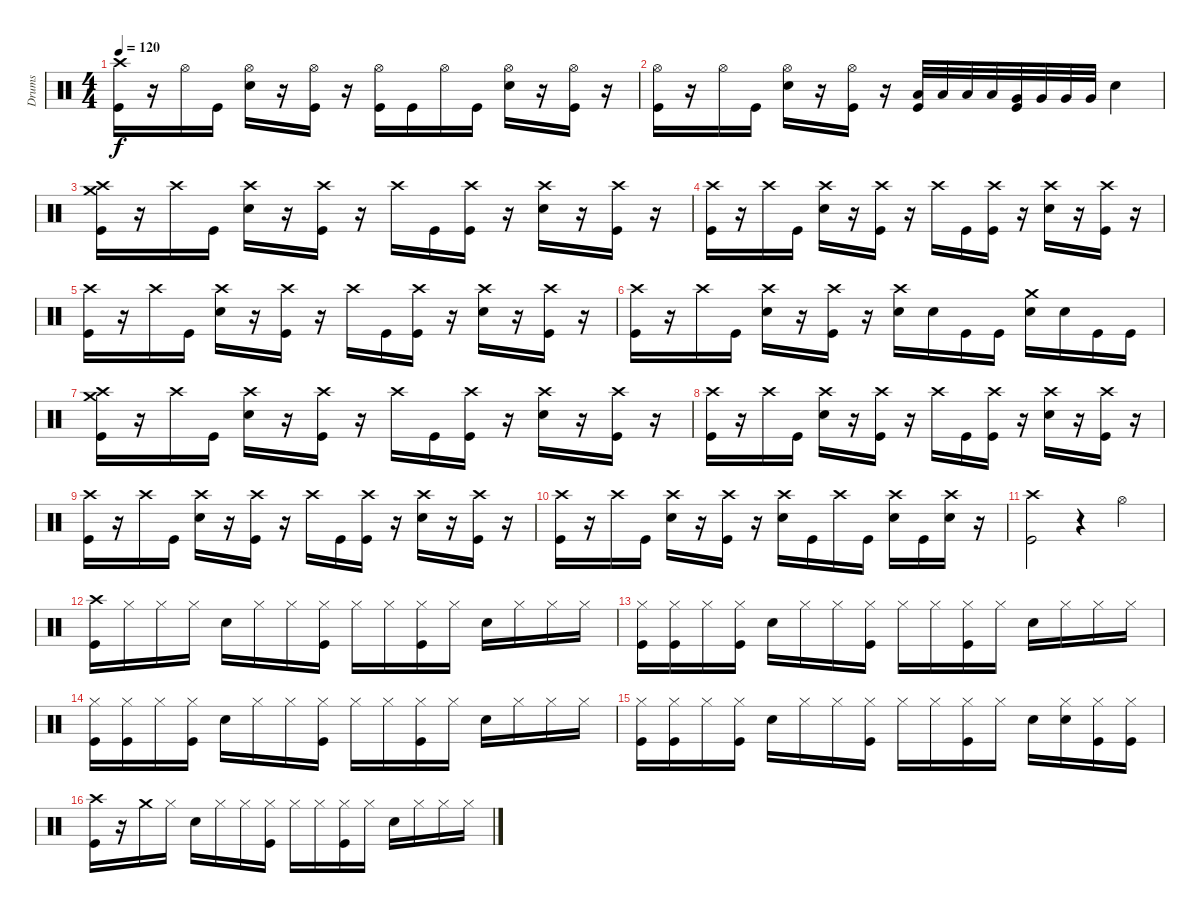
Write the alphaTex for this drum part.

\track ("Drums" "Drums") {instrument percussion}
\staff {score}
\articulation defaults
\ts (4 4)
\tempo 120
\clef neutral
\ks c
("Crash high (hit)" "Kick (hit)").16{dy f} r.16 "Hi-Hat (open)".16 "Kick (hit)".16 ("Hi-Hat (open)" "Snare (hit) 2").16 r.16 ("Hi-Hat (open)" "Kick (hit)").16 r.16 ("Hi-Hat (open)" "Kick (hit)").16 "Kick (hit)".16 "Hi-Hat (open)".16 "Kick (hit)".16 ("Hi-Hat (open)" "Snare (hit) 2").16 r.16 ("Hi-Hat (open)" "Kick (hit)").16 r.16 |
("Hi-Hat (open)" "Kick (hit)").16 r.16 "Hi-Hat (open)".16 "Kick (hit)".16 ("Hi-Hat (open)" "Snare (hit) 2").16 r.16 ("Hi-Hat (open)" "Kick (hit)").16 r.16 ("Low Tom (hit)" "Kick (hit)").32 "Low Tom (hit)".32 "Low Tom (hit)".32 "Low Tom (hit)".32 ("Very Low Tom (hit)" "Kick (hit)").32 "Very Low Tom (hit)".32 "Very Low Tom (hit)".32 "Very Low Tom (hit)".32 "Snare (hit) 2".4 |
("Crash medium (hit)" "Crash high (hit)" "Kick (hit)").16 r.16 "Crash high (hit)".16 "Kick (hit)".16 ("Crash high (hit)" "Snare (hit) 2").16 r.16 ("Crash high (hit)" "Kick (hit)").16 r.16 "Crash high (hit)".16 "Kick (hit)".16 ("Crash high (hit)" "Kick (hit)").16 r.16 ("Crash high (hit)" "Snare (hit) 2").16 r.16 ("Crash high (hit)" "Kick (hit)").16 r.16 |
("Crash high (hit)" "Kick (hit)").16 r.16 "Crash high (hit)".16 "Kick (hit)".16 ("Crash high (hit)" "Snare (hit) 2").16 r.16 ("Crash high (hit)" "Kick (hit)").16 r.16 "Crash high (hit)".16 "Kick (hit)".16 ("Crash high (hit)" "Kick (hit)").16 r.16 ("Crash high (hit)" "Snare (hit) 2").16 r.16 ("Crash high (hit)" "Kick (hit)").16 r.16 |
("Crash high (hit)" "Kick (hit)").16 r.16 "Crash high (hit)".16 "Kick (hit)".16 ("Crash high (hit)" "Snare (hit) 2").16 r.16 ("Crash high (hit)" "Kick (hit)").16 r.16 "Crash high (hit)".16 "Kick (hit)".16 ("Crash high (hit)" "Kick (hit)").16 r.16 ("Crash high (hit)" "Snare (hit) 2").16 r.16 ("Crash high (hit)" "Kick (hit)").16 r.16 |
("Crash high (hit)" "Kick (hit)").16 r.16 "Crash high (hit)".16 "Kick (hit)".16 ("Crash high (hit)" "Snare (hit) 2").16 r.16 ("Crash high (hit)" "Kick (hit)").16 r.16 ("Crash high (hit)" "Snare (hit) 2").16 "Snare (hit) 2".16 "Kick (hit)".16 "Kick (hit)".16 ("Crash medium (hit)" "Snare (hit) 2").16 "Snare (hit) 2".16 "Kick (hit)".16 "Kick (hit)".16 |
("Crash medium (hit)" "Crash high (hit)" "Kick (hit)").16 r.16 "Crash high (hit)".16 "Kick (hit)".16 ("Crash high (hit)" "Snare (hit) 2").16 r.16 ("Crash high (hit)" "Kick (hit)").16 r.16 "Crash high (hit)".16 "Kick (hit)".16 ("Crash high (hit)" "Kick (hit)").16 r.16 ("Crash high (hit)" "Snare (hit) 2").16 r.16 ("Crash high (hit)" "Kick (hit)").16 r.16 |
("Crash high (hit)" "Kick (hit)").16 r.16 "Crash high (hit)".16 "Kick (hit)".16 ("Crash high (hit)" "Snare (hit) 2").16 r.16 ("Crash high (hit)" "Kick (hit)").16 r.16 "Crash high (hit)".16 "Kick (hit)".16 ("Crash high (hit)" "Kick (hit)").16 r.16 ("Crash high (hit)" "Snare (hit) 2").16 r.16 ("Crash high (hit)" "Kick (hit)").16 r.16 |
("Crash high (hit)" "Kick (hit)").16 r.16 "Crash high (hit)".16 "Kick (hit)".16 ("Crash high (hit)" "Snare (hit) 2").16 r.16 ("Crash high (hit)" "Kick (hit)").16 r.16 "Crash high (hit)".16 "Kick (hit)".16 ("Crash high (hit)" "Kick (hit)").16 r.16 ("Crash high (hit)" "Snare (hit) 2").16 r.16 ("Crash high (hit)" "Kick (hit)").16 r.16 |
("Crash high (hit)" "Kick (hit)").16 r.16 "Crash high (hit)".16 "Kick (hit)".16 ("Crash high (hit)" "Snare (hit) 2").16 r.16 ("Crash high (hit)" "Kick (hit)").16 r.16 ("Crash high (hit)" "Snare (hit) 2").16 "Kick (hit)".16 "Crash high (hit)".16 "Kick (hit)".16 ("Crash high (hit)" "Snare (hit) 2").16 "Kick (hit)".16 ("Crash high (hit)" "Snare (hit) 2").16 r.16 |
("Crash high (hit)" "Kick (hit)").2 r.4 "Hi-Hat (open)".4 |
("Crash high (hit)" "Kick (hit)").16 "Hi-Hat (closed)".16 "Hi-Hat (closed)".16 "Hi-Hat (closed)".16 "Snare (hit) 2".16 "Hi-Hat (closed)".16 "Hi-Hat (closed)".16 ("Hi-Hat (closed)" "Kick (hit)").16 "Hi-Hat (closed)".16 "Hi-Hat (closed)".16 ("Hi-Hat (closed)" "Kick (hit)").16 "Hi-Hat (closed)".16 "Snare (hit) 2".16 "Hi-Hat (closed)".16 "Hi-Hat (closed)".16 "Hi-Hat (closed)".16 |
("Hi-Hat (closed)" "Kick (hit)").16 ("Hi-Hat (closed)" "Kick (hit)").16 "Hi-Hat (closed)".16 ("Hi-Hat (closed)" "Kick (hit)").16 "Snare (hit) 2".16 "Hi-Hat (closed)".16 "Hi-Hat (closed)".16 ("Hi-Hat (closed)" "Kick (hit)").16 "Hi-Hat (closed)".16 "Hi-Hat (closed)".16 ("Hi-Hat (closed)" "Kick (hit)").16 "Hi-Hat (closed)".16 "Snare (hit) 2".16 "Hi-Hat (closed)".16 "Hi-Hat (closed)".16 "Hi-Hat (closed)".16 |
("Hi-Hat (closed)" "Kick (hit)").16 ("Hi-Hat (closed)" "Kick (hit)").16 "Hi-Hat (closed)".16 ("Hi-Hat (closed)" "Kick (hit)").16 "Snare (hit) 2".16 "Hi-Hat (closed)".16 "Hi-Hat (closed)".16 ("Hi-Hat (closed)" "Kick (hit)").16 "Hi-Hat (closed)".16 "Hi-Hat (closed)".16 ("Hi-Hat (closed)" "Kick (hit)").16 "Hi-Hat (closed)".16 "Snare (hit) 2".16 "Hi-Hat (closed)".16 "Hi-Hat (closed)".16 "Hi-Hat (closed)".16 |
("Hi-Hat (closed)" "Kick (hit)").16 ("Hi-Hat (closed)" "Kick (hit)").16 "Hi-Hat (closed)".16 ("Hi-Hat (closed)" "Kick (hit)").16 "Snare (hit) 2".16 "Hi-Hat (closed)".16 "Hi-Hat (closed)".16 ("Hi-Hat (closed)" "Kick (hit)").16 "Hi-Hat (closed)".16 "Hi-Hat (closed)".16 ("Hi-Hat (closed)" "Kick (hit)").16 "Hi-Hat (closed)".16 "Snare (hit) 2".16 ("Hi-Hat (closed)" "Snare (hit) 2").16 ("Hi-Hat (closed)" "Kick (hit)").16 ("Hi-Hat (closed)" "Kick (hit)").16 |
("Crash high (hit)" "Kick (hit)").16 r.16 "Crash medium (hit)".16 "Hi-Hat (closed)".16 "Snare (hit) 2".16 "Hi-Hat (closed)".16 "Hi-Hat (closed)".16 ("Hi-Hat (closed)" "Kick (hit)").16 "Hi-Hat (closed)".16 "Hi-Hat (closed)".16 ("Hi-Hat (closed)" "Kick (hit)").16 "Hi-Hat (closed)".16 "Snare (hit) 2".16 "Hi-Hat (closed)".16 "Hi-Hat (closed)".16 "Hi-Hat (closed)".16
